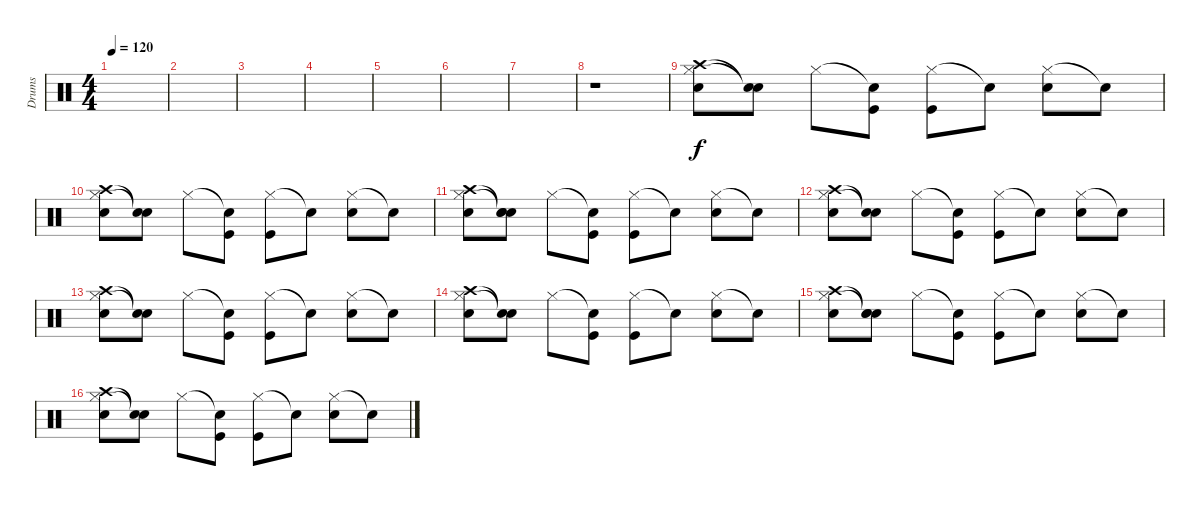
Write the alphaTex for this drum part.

\track ("Drums" "Drums") {instrument percussion}
\staff {score}
\articulation defaults
\ts (4 4)
\tempo 120
\clef neutral
\ks c
|
|
|
|
|
|
|
r.1 |
("Hi-Hat (closed)" "Crash high (hit)" "Snare (hit) 2").8 ("Snare (hit)"{t} "Snare (hit)"{t}).8 "Hi-Hat (closed)".8 ("Snare (hit)"{t} "Kick (hit)").8 ("Hi-Hat (closed)" "Kick (hit)").8 "Snare (hit)"{t}.8 ("Hi-Hat (closed)" "Snare (hit) 2").8 "Snare (hit)"{t}.8 |
("Hi-Hat (closed)" "Crash high (hit)" "Snare (hit) 2").8 ("Snare (hit)"{t} "Snare (hit)"{t}).8 "Hi-Hat (closed)".8 ("Snare (hit)"{t} "Kick (hit)").8 ("Hi-Hat (closed)" "Kick (hit)").8 "Snare (hit)"{t}.8 ("Hi-Hat (closed)" "Snare (hit) 2").8 "Snare (hit)"{t}.8 |
("Hi-Hat (closed)" "Crash high (hit)" "Snare (hit) 2").8 ("Snare (hit)"{t} "Snare (hit)"{t} "Snare (hit) 2").8 "Hi-Hat (closed)".8 ("Snare (hit)"{t} "Kick (hit)").8 ("Hi-Hat (closed)" "Kick (hit)").8 "Snare (hit)"{t}.8 ("Hi-Hat (closed)" "Snare (hit) 2").8 "Snare (hit)"{t}.8 |
("Hi-Hat (closed)" "Crash high (hit)" "Snare (hit) 2").8 ("Snare (hit)"{t} "Snare (hit)"{t}).8 "Hi-Hat (closed)".8 ("Snare (hit)"{t} "Kick (hit)").8 ("Hi-Hat (closed)" "Kick (hit)").8 "Snare (hit)"{t}.8 ("Hi-Hat (closed)" "Snare (hit) 2").8 "Snare (hit)"{t}.8 |
("Hi-Hat (closed)" "Crash high (hit)" "Snare (hit) 2").8 ("Snare (hit)"{t} "Snare (hit)"{t}).8 "Hi-Hat (closed)".8 ("Snare (hit)"{t} "Kick (hit)").8 ("Hi-Hat (closed)" "Kick (hit)").8 "Snare (hit)"{t}.8 ("Hi-Hat (closed)" "Snare (hit) 2").8 "Snare (hit)"{t}.8 |
("Hi-Hat (closed)" "Crash high (hit)" "Snare (hit) 2").8 ("Snare (hit)"{t} "Snare (hit)"{t}).8 "Hi-Hat (closed)".8 ("Snare (hit)"{t} "Kick (hit)").8 ("Hi-Hat (closed)" "Kick (hit)").8 "Snare (hit)"{t}.8 ("Hi-Hat (closed)" "Snare (hit) 2").8 "Snare (hit)"{t}.8 |
("Hi-Hat (closed)" "Crash high (hit)" "Snare (hit) 2").8 ("Snare (hit)"{t} "Snare (hit)"{t} "Snare (hit) 2").8 "Hi-Hat (closed)".8 ("Snare (hit)"{t} "Kick (hit)").8 ("Hi-Hat (closed)" "Kick (hit)").8 "Snare (hit)"{t}.8 ("Hi-Hat (closed)" "Snare (hit) 2").8 "Snare (hit)"{t}.8 |
("Hi-Hat (closed)" "Crash high (hit)" "Snare (hit) 2").8 ("Snare (hit)"{t} "Snare (hit)"{t}).8 "Hi-Hat (closed)".8 ("Snare (hit)"{t} "Kick (hit)").8 ("Hi-Hat (closed)" "Kick (hit)").8 "Snare (hit)"{t}.8 ("Hi-Hat (closed)" "Snare (hit) 2").8 "Snare (hit)"{t}.8
